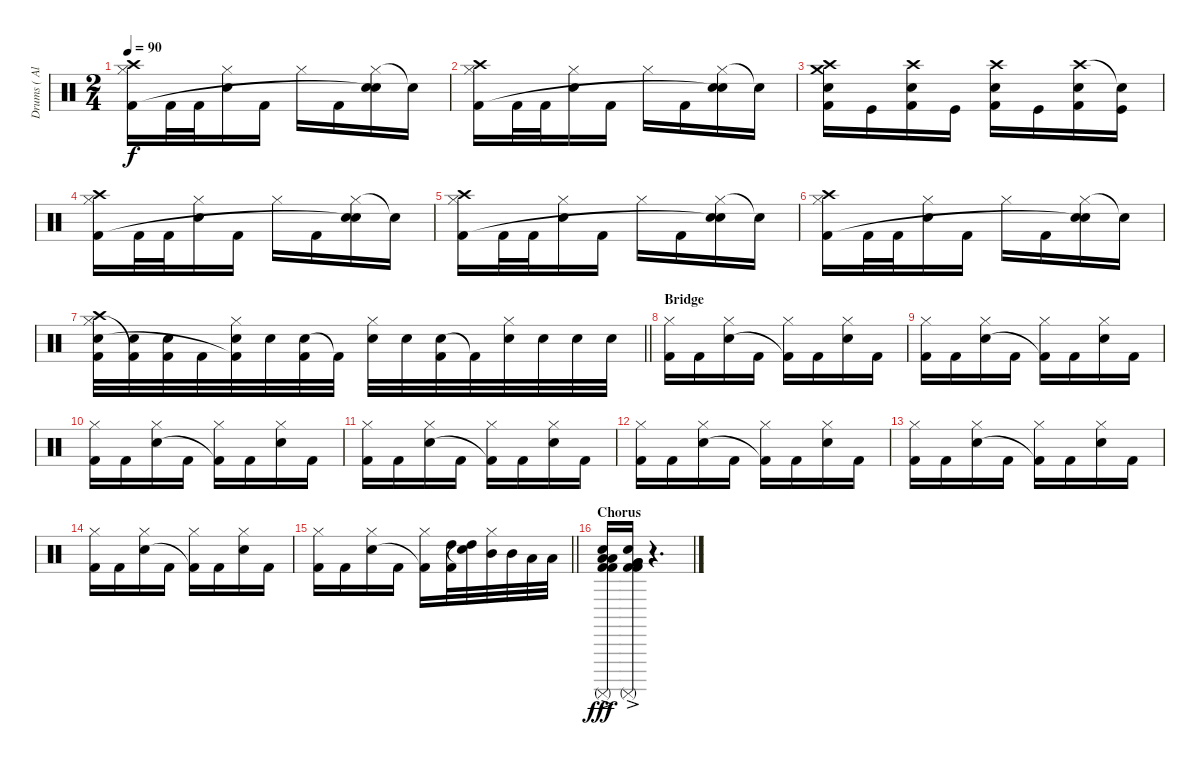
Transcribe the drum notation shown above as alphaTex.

\track ("Drums ( Alex Holzwarth)" "Drums ( Al") {instrument percussion}
\staff {score}
\articulation defaults
\ts (2 4)
\tempo 90
\clef neutral
\ks c
("Crash high (hit)" "Hi-Hat (closed)" "Kick (hit) 2").16{dy f} "Kick (hit) 2".32 "Kick (hit) 2".32 ("Hi-Hat (closed)" "Electric Snare (hit)").16 "Kick (hit) 2".16 "Hi-Hat (closed)".16 "Kick (hit) 2".16 ("Hi-Hat (closed)" "Electric Snare (hit)" "Snare (hit)"{t}).16 "Snare (hit)"{t}.16 |
("Crash high (hit)" "Hi-Hat (closed)" "Kick (hit) 2").16 "Kick (hit) 2".32 "Kick (hit) 2".32 ("Hi-Hat (closed)" "Electric Snare (hit)").16 "Kick (hit) 2".16 "Hi-Hat (closed)".16 "Kick (hit) 2".16 ("Hi-Hat (closed)" "Electric Snare (hit)" "Snare (hit)"{t}).16 "Snare (hit)"{t}.16 |
("Crash high (hit)" "Crash medium (hit)" "Snare (hit) 2" "Kick (hit) 2").16 "Kick (hit)".16 ("Crash high (hit)" "Snare (hit) 2" "Kick (hit) 2").16 "Kick (hit)".16 ("Crash high (hit)" "Snare (hit) 2" "Kick (hit) 2").16 "Kick (hit)".16 ("Crash high (hit)" "Snare (hit) 2" "Kick (hit) 2").16 ("Snare (hit)"{t} "Kick (hit)").16 |
("Crash high (hit)" "Hi-Hat (closed)" "Kick (hit) 2").16 "Kick (hit) 2".32 "Kick (hit) 2".32 ("Hi-Hat (closed)" "Electric Snare (hit)").16 "Kick (hit) 2".16 "Hi-Hat (closed)".16 "Kick (hit) 2".16 ("Hi-Hat (closed)" "Electric Snare (hit)" "Snare (hit)"{t}).16 "Snare (hit)"{t}.16 |
("Crash high (hit)" "Hi-Hat (closed)" "Kick (hit) 2").16 "Kick (hit) 2".32 "Kick (hit) 2".32 ("Hi-Hat (closed)" "Electric Snare (hit)").16 "Kick (hit) 2".16 "Hi-Hat (closed)".16 "Kick (hit) 2".16 ("Hi-Hat (closed)" "Electric Snare (hit)" "Snare (hit)"{t}).16 "Snare (hit)"{t}.16 |
("Crash high (hit)" "Hi-Hat (closed)" "Kick (hit) 2").16 "Kick (hit) 2".32 "Kick (hit) 2".32 ("Hi-Hat (closed)" "Electric Snare (hit)").16 "Kick (hit) 2".16 "Hi-Hat (closed)".16 "Kick (hit) 2".16 ("Hi-Hat (closed)" "Electric Snare (hit)" "Snare (hit)"{t}).16 "Snare (hit)"{t}.16 |
\barLineRight lightlight
("Crash high (hit)" "Hi-Hat (closed)" "Electric Snare (hit)" "Kick (hit) 2").32 ("Electric Snare (hit)" "Kick (hit) 2"{t}).32 ("Electric Snare (hit)" "Kick (hit) 2").32 "Kick (hit) 2".32 ("Hi-Hat (closed)" "Electric Snare (hit)" "Kick (hit) 2"{t}).32 "Electric Snare (hit)".32 ("Electric Snare (hit)" "Kick (hit) 2").32 "Kick (hit) 2"{t}.32 ("Hi-Hat (closed)" "Electric Snare (hit)").32 "Electric Snare (hit)".32 ("Electric Snare (hit)" "Kick (hit) 2").32 "Kick (hit) 2"{t}.32 ("Hi-Hat (closed)" "Electric Snare (hit)").32 "Electric Snare (hit)".32 "Electric Snare (hit)".32 "Electric Snare (hit)".32 |
\section ("" "Bridge")
("Hi-Hat (closed)" "Kick (hit) 2").16 "Kick (hit) 2".16 ("Hi-Hat (closed)" "Electric Snare (hit)").16 "Kick (hit) 2".16 ("Hi-Hat (closed)" "Kick (hit) 2"{t}).16 "Kick (hit) 2".16 ("Hi-Hat (closed)" "Electric Snare (hit)").16 "Kick (hit) 2".16 |
("Hi-Hat (closed)" "Kick (hit) 2").16 "Kick (hit) 2".16 ("Hi-Hat (closed)" "Electric Snare (hit)").16 "Kick (hit) 2".16 ("Hi-Hat (closed)" "Kick (hit) 2"{t}).16 "Kick (hit) 2".16 ("Hi-Hat (closed)" "Electric Snare (hit)").16 "Kick (hit) 2".16 |
("Hi-Hat (closed)" "Kick (hit) 2").16 "Kick (hit) 2".16 ("Hi-Hat (closed)" "Electric Snare (hit)").16 "Kick (hit) 2".16 ("Hi-Hat (closed)" "Kick (hit) 2"{t}).16 "Kick (hit) 2".16 ("Hi-Hat (closed)" "Electric Snare (hit)").16 "Kick (hit) 2".16 |
("Hi-Hat (closed)" "Kick (hit) 2").16 "Kick (hit) 2".16 ("Hi-Hat (closed)" "Electric Snare (hit)").16 "Kick (hit) 2".16 ("Hi-Hat (closed)" "Kick (hit) 2"{t}).16 "Kick (hit) 2".16 ("Hi-Hat (closed)" "Electric Snare (hit)").16 "Kick (hit) 2".16 |
("Hi-Hat (closed)" "Kick (hit) 2").16 "Kick (hit) 2".16 ("Hi-Hat (closed)" "Electric Snare (hit)").16 "Kick (hit) 2".16 ("Hi-Hat (closed)" "Kick (hit) 2"{t}).16 "Kick (hit) 2".16 ("Hi-Hat (closed)" "Electric Snare (hit)").16 "Kick (hit) 2".16 |
("Hi-Hat (closed)" "Kick (hit) 2").16 "Kick (hit) 2".16 ("Hi-Hat (closed)" "Electric Snare (hit)").16 "Kick (hit) 2".16 ("Hi-Hat (closed)" "Kick (hit) 2"{t}).16 "Kick (hit) 2".16 ("Hi-Hat (closed)" "Electric Snare (hit)").16 "Kick (hit) 2".16 |
("Hi-Hat (closed)" "Kick (hit) 2").16 "Kick (hit) 2".16 ("Hi-Hat (closed)" "Electric Snare (hit)").16 "Kick (hit) 2".16 ("Hi-Hat (closed)" "Kick (hit) 2"{t}).16 "Kick (hit) 2".16 ("Hi-Hat (closed)" "Electric Snare (hit)").16 "Kick (hit) 2".16 |
\barLineRight lightlight
("Hi-Hat (closed)" "Kick (hit) 2").16 "Kick (hit) 2".16 ("Hi-Hat (closed)" "Electric Snare (hit)").16 "Kick (hit) 2".16 ("Hi-Hat (closed)" "Kick (hit) 2"{t}).16 ("High Tom (hit)" "Kick (hit) 2").32 ("High Tom (hit)" "Snare (hit)"{t}).32 ("Hi-Hat (closed)" "Mid Tom (hit)").32 "Mid Tom (hit)".32 "Low Tom (hit)".32 "Low Tom (hit)".32 |
\section ("" "Chorus")
("Surdo (mute)"{ac} "Low Tom (hit)"{ac} "Low Tom (hit)"{ac} "Snare (hit) 2" "Kick (hit) 2"{ac} "Kick (hit) 2"{ac}).16{dy fff} ("Surdo (mute)"{ac} "Very Low Tom (hit)"{ac} "Very Low Tom (hit)"{ac} "Snare (hit) 2" "Kick (hit) 2"{ac} "Kick (hit) 2"{ac}).16 r.4{d}
